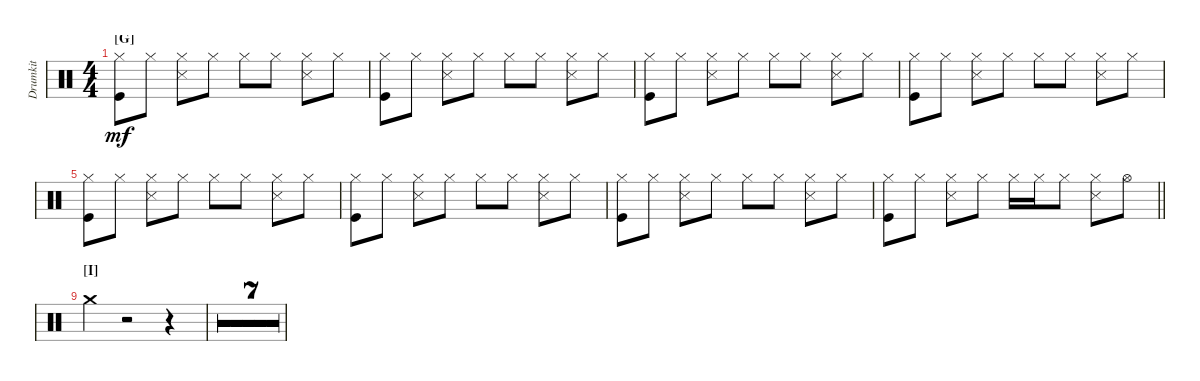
\bracketExtendMode groupsimilarinstruments
\multiTrackTrackNamePolicy hidden
\firstSystemTrackNameMode fullname
\otherSystemsTrackNameMode fullname
\otherSystemsTrackNameOrientation horizontal
\defaultBarNumberDisplay FirstOfSystem
\track ("Drumkit" "Drums") {multiBarRest instrument percussion}
\staff {score}
\articulation defaults
\ts (4 4)
\section ("G" "")
\tempo (150 hide)
\clef neutral
\ks c
("Hi-Hat (closed)" "Kick (hit)").8{dy mf} "Hi-Hat (closed)".8 ("Hi-Hat (closed)" "Snare (side stick) 3").8 "Hi-Hat (closed)".8 "Hi-Hat (closed)".8 "Hi-Hat (closed)".8 ("Hi-Hat (closed)" "Snare (side stick) 3").8 "Hi-Hat (closed)".8 |
("Hi-Hat (closed)" "Kick (hit)").8 "Hi-Hat (closed)".8 ("Hi-Hat (closed)" "Snare (side stick) 3").8 "Hi-Hat (closed)".8 "Hi-Hat (closed)".8 "Hi-Hat (closed)".8 ("Hi-Hat (closed)" "Snare (side stick) 3").8 "Hi-Hat (closed)".8 |
("Hi-Hat (closed)" "Kick (hit)").8 "Hi-Hat (closed)".8 ("Hi-Hat (closed)" "Snare (side stick) 3").8 "Hi-Hat (closed)".8 "Hi-Hat (closed)".8 "Hi-Hat (closed)".8 ("Hi-Hat (closed)" "Snare (side stick) 3").8 "Hi-Hat (closed)".8 |
("Hi-Hat (closed)" "Kick (hit)").8 "Hi-Hat (closed)".8 ("Hi-Hat (closed)" "Snare (side stick) 3").8 "Hi-Hat (closed)".8 "Hi-Hat (closed)".8 "Hi-Hat (closed)".8 ("Hi-Hat (closed)" "Snare (side stick) 3").8 "Hi-Hat (closed)".8 |
("Hi-Hat (closed)" "Kick (hit)").8 "Hi-Hat (closed)".8 ("Hi-Hat (closed)" "Snare (side stick) 3").8 "Hi-Hat (closed)".8 "Hi-Hat (closed)".8 "Hi-Hat (closed)".8 ("Hi-Hat (closed)" "Snare (side stick) 3").8 "Hi-Hat (closed)".8 |
("Hi-Hat (closed)" "Kick (hit)").8 "Hi-Hat (closed)".8 ("Hi-Hat (closed)" "Snare (side stick) 3").8 "Hi-Hat (closed)".8 "Hi-Hat (closed)".8 "Hi-Hat (closed)".8 ("Hi-Hat (closed)" "Snare (side stick) 3").8 "Hi-Hat (closed)".8 |
("Hi-Hat (closed)" "Kick (hit)").8 "Hi-Hat (closed)".8 ("Hi-Hat (closed)" "Snare (side stick) 3").8 "Hi-Hat (closed)".8 "Hi-Hat (closed)".8 "Hi-Hat (closed)".8 ("Hi-Hat (closed)" "Snare (side stick) 3").8 "Hi-Hat (closed)".8 |
\barLineRight lightlight
("Hi-Hat (closed)" "Kick (hit)").8 "Hi-Hat (closed)".8 ("Hi-Hat (closed)" "Snare (side stick) 3").8 "Hi-Hat (closed)".8 "Hi-Hat (closed)".16 "Hi-Hat (closed)".16 "Hi-Hat (closed)".8 ("Hi-Hat (closed)" "Snare (side stick) 3").8 "Hi-Hat (open)".8 |
\section ("I" "")
"Crash medium (hit)".4 r.2 r.4 |
r.1 |
r.1 |
r.1 |
r.1 |
r.1 |
r.1 |
r.1
